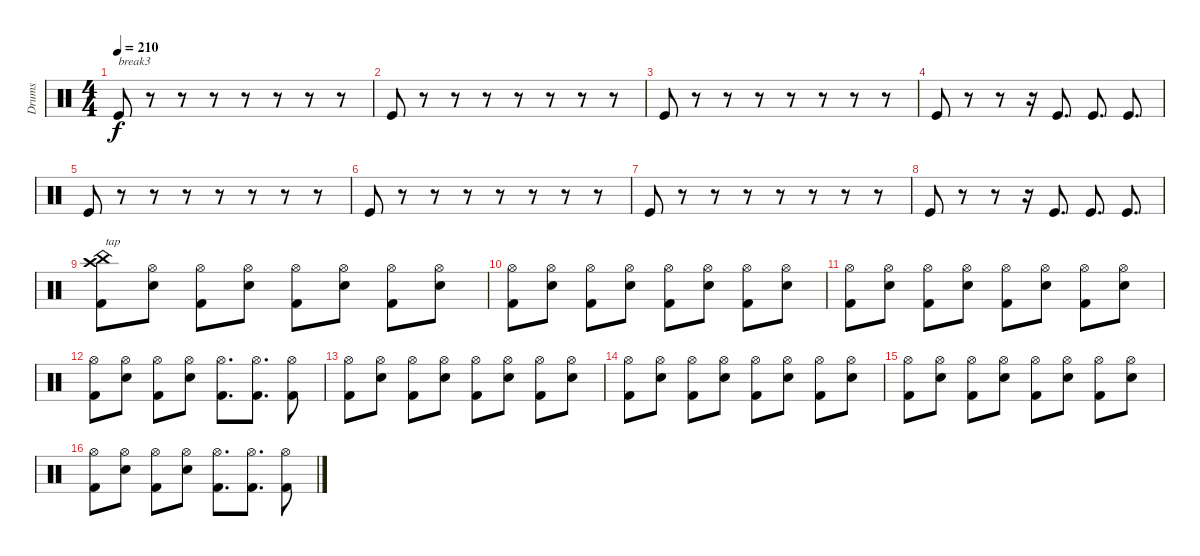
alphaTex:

\track ("Drums" "Drums") {instrument percussion}
\staff {score}
\articulation defaults
\ts (4 4)
\tempo 210
\clef neutral
\ks c "Kick (hit)".8{txt "break3" dy f}
r.8 r.8 r.8 r.8 r.8 r.8 r.8 |
"Kick (hit)".8 r.8 r.8 r.8 r.8 r.8 r.8 r.8 |
"Kick (hit)".8 r.8 r.8 r.8 r.8 r.8 r.8 r.8 |
"Kick (hit)".8 r.8 r.8 r.16 "Kick (hit)".8{d} "Kick (hit)".8{d} "Kick (hit)".8{d} |
"Kick (hit)".8 r.8 r.8 r.8 r.8 r.8 r.8 r.8 |
"Kick (hit)".8 r.8 r.8 r.8 r.8 r.8 r.8 r.8 |
"Kick (hit)".8 r.8 r.8 r.8 r.8 r.8 r.8 r.8 |
"Kick (hit)".8 r.8 r.8 r.16 "Kick (hit)".8{d} "Kick (hit)".8{d} "Kick (hit)".8{d} |
("Kick (hit) 2" "China (hit)" "Crash high (hit)").8{txt "tap"} ("Snare (hit) 2" "Hi-Hat (open)").8 ("Kick (hit) 2" "Hi-Hat (open)").8 ("Snare (hit) 2" "Hi-Hat (open)").8 ("Kick (hit) 2" "Hi-Hat (open)").8 ("Snare (hit) 2" "Hi-Hat (open)").8 ("Kick (hit) 2" "Hi-Hat (open)").8 ("Snare (hit) 2" "Hi-Hat (open)").8 |
("Kick (hit) 2" "Hi-Hat (open)").8 ("Snare (hit) 2" "Hi-Hat (open)").8 ("Kick (hit) 2" "Hi-Hat (open)").8 ("Snare (hit) 2" "Hi-Hat (open)").8 ("Kick (hit) 2" "Hi-Hat (open)").8 ("Snare (hit) 2" "Hi-Hat (open)").8 ("Kick (hit) 2" "Hi-Hat (open)").8 ("Snare (hit) 2" "Hi-Hat (open)").8 |
("Kick (hit) 2" "Hi-Hat (open)").8 ("Snare (hit) 2" "Hi-Hat (open)").8 ("Kick (hit) 2" "Hi-Hat (open)").8 ("Snare (hit) 2" "Hi-Hat (open)").8 ("Kick (hit) 2" "Hi-Hat (open)").8 ("Snare (hit) 2" "Hi-Hat (open)").8 ("Kick (hit) 2" "Hi-Hat (open)").8 ("Snare (hit) 2" "Hi-Hat (open)").8 |
("Kick (hit) 2" "Hi-Hat (open)").8 ("Snare (hit) 2" "Hi-Hat (open)").8 ("Kick (hit) 2" "Hi-Hat (open)").8 ("Snare (hit) 2" "Hi-Hat (open)").8 ("Kick (hit) 2" "Hi-Hat (open)").8{d} ("Kick (hit) 2" "Hi-Hat (open)").8{d} ("Kick (hit) 2" "Hi-Hat (open)").8 |
("Kick (hit) 2" "Hi-Hat (open)").8 ("Snare (hit) 2" "Hi-Hat (open)").8 ("Kick (hit) 2" "Hi-Hat (open)").8 ("Snare (hit) 2" "Hi-Hat (open)").8 ("Kick (hit) 2" "Hi-Hat (open)").8 ("Snare (hit) 2" "Hi-Hat (open)").8 ("Kick (hit) 2" "Hi-Hat (open)").8 ("Snare (hit) 2" "Hi-Hat (open)").8 |
("Kick (hit) 2" "Hi-Hat (open)").8 ("Snare (hit) 2" "Hi-Hat (open)").8 ("Kick (hit) 2" "Hi-Hat (open)").8 ("Snare (hit) 2" "Hi-Hat (open)").8 ("Kick (hit) 2" "Hi-Hat (open)").8 ("Snare (hit) 2" "Hi-Hat (open)").8 ("Kick (hit) 2" "Hi-Hat (open)").8 ("Snare (hit) 2" "Hi-Hat (open)").8 |
("Kick (hit) 2" "Hi-Hat (open)").8 ("Snare (hit) 2" "Hi-Hat (open)").8 ("Kick (hit) 2" "Hi-Hat (open)").8 ("Snare (hit) 2" "Hi-Hat (open)").8 ("Kick (hit) 2" "Hi-Hat (open)").8 ("Snare (hit) 2" "Hi-Hat (open)").8 ("Kick (hit) 2" "Hi-Hat (open)").8 ("Snare (hit) 2" "Hi-Hat (open)").8 |
("Kick (hit) 2" "Hi-Hat (open)").8 ("Snare (hit) 2" "Hi-Hat (open)").8 ("Kick (hit) 2" "Hi-Hat (open)").8 ("Snare (hit) 2" "Hi-Hat (open)").8 ("Kick (hit) 2" "Hi-Hat (open)").8{d} ("Kick (hit) 2" "Hi-Hat (open)").8{d} ("Kick (hit) 2" "Hi-Hat (open)").8
